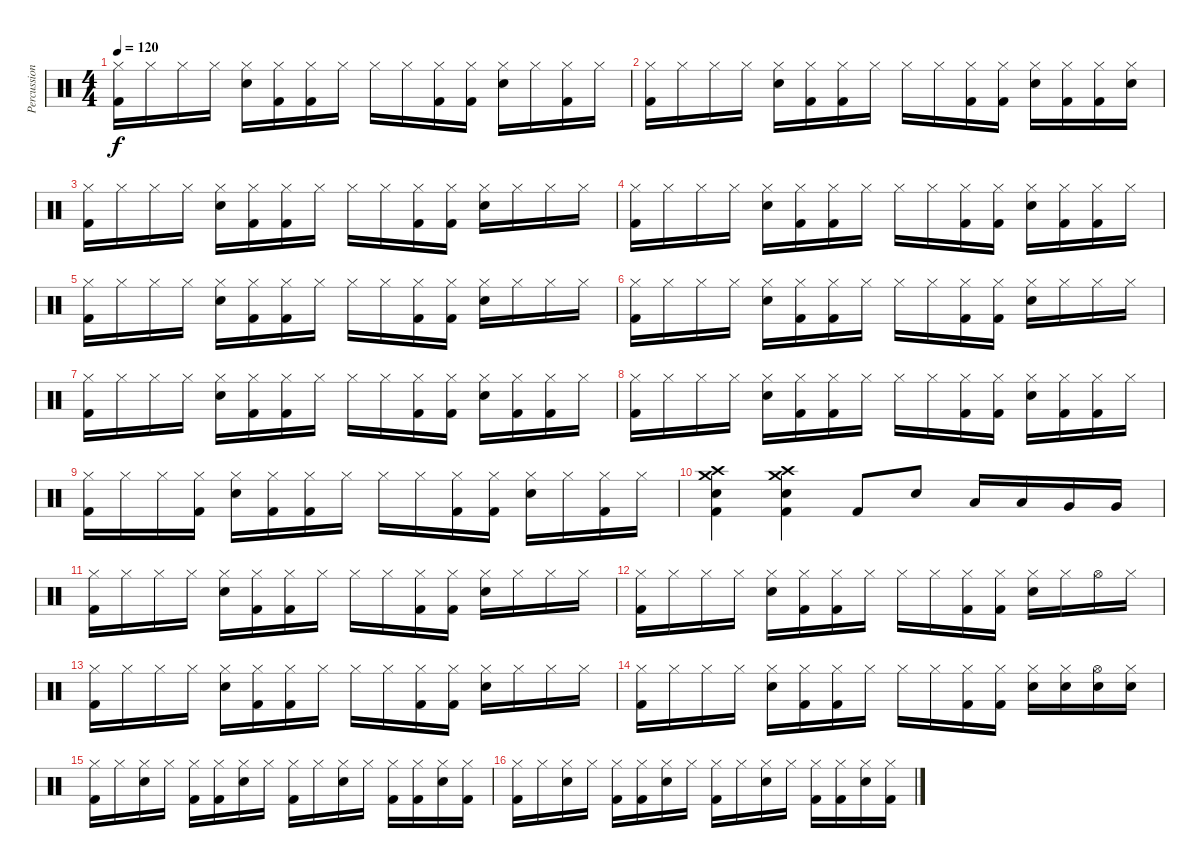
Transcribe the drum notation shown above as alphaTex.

\track ("Percussion" "Percussion") {instrument percussion}
\staff {score}
\articulation defaults
\ts (4 4)
\tempo 120
\clef neutral
\ks c
("Hi-Hat (closed)" "Kick (hit) 2").16{dy f} "Hi-Hat (closed)".16 "Hi-Hat (closed)".16 "Hi-Hat (closed)".16 ("Hi-Hat (closed)" "Snare (hit) 2").16 ("Hi-Hat (closed)" "Kick (hit) 2").16 ("Hi-Hat (closed)" "Kick (hit) 2").16 "Hi-Hat (closed)".16 "Hi-Hat (closed)".16 "Hi-Hat (closed)".16 ("Hi-Hat (closed)" "Kick (hit) 2").16 ("Hi-Hat (closed)" "Kick (hit) 2").16 ("Hi-Hat (closed)" "Snare (hit) 2").16 "Hi-Hat (closed)".16 ("Hi-Hat (closed)" "Kick (hit) 2").16 "Hi-Hat (closed)".16 |
("Hi-Hat (closed)" "Kick (hit) 2").16 "Hi-Hat (closed)".16 "Hi-Hat (closed)".16 "Hi-Hat (closed)".16 ("Hi-Hat (closed)" "Snare (hit) 2").16 ("Hi-Hat (closed)" "Kick (hit) 2").16 ("Hi-Hat (closed)" "Kick (hit) 2").16 "Hi-Hat (closed)".16 "Hi-Hat (closed)".16 "Hi-Hat (closed)".16 ("Hi-Hat (closed)" "Kick (hit) 2").16 ("Hi-Hat (closed)" "Kick (hit) 2").16 ("Hi-Hat (closed)" "Snare (hit) 2").16 ("Hi-Hat (closed)" "Kick (hit) 2").16 ("Hi-Hat (closed)" "Kick (hit) 2").16 ("Hi-Hat (closed)" "Snare (hit) 2").16 |
("Hi-Hat (closed)" "Kick (hit) 2").16 "Hi-Hat (closed)".16 "Hi-Hat (closed)".16 "Hi-Hat (closed)".16 ("Hi-Hat (closed)" "Snare (hit) 2").16 ("Hi-Hat (closed)" "Kick (hit) 2").16 ("Hi-Hat (closed)" "Kick (hit) 2").16 "Hi-Hat (closed)".16 "Hi-Hat (closed)".16 "Hi-Hat (closed)".16 ("Hi-Hat (closed)" "Kick (hit) 2").16 ("Hi-Hat (closed)" "Kick (hit) 2").16 ("Hi-Hat (closed)" "Snare (hit) 2").16 "Hi-Hat (closed)".16 "Hi-Hat (closed)".16 "Hi-Hat (closed)".16 |
("Hi-Hat (closed)" "Kick (hit) 2").16 "Hi-Hat (closed)".16 "Hi-Hat (closed)".16 "Hi-Hat (closed)".16 ("Hi-Hat (closed)" "Snare (hit) 2").16 ("Hi-Hat (closed)" "Kick (hit) 2").16 ("Hi-Hat (closed)" "Kick (hit) 2").16 "Hi-Hat (closed)".16 "Hi-Hat (closed)".16 "Hi-Hat (closed)".16 ("Hi-Hat (closed)" "Kick (hit) 2").16 ("Hi-Hat (closed)" "Kick (hit) 2").16 ("Hi-Hat (closed)" "Snare (hit) 2").16 ("Hi-Hat (closed)" "Kick (hit) 2").16 ("Hi-Hat (closed)" "Kick (hit) 2").16 "Hi-Hat (closed)".16 |
("Hi-Hat (closed)" "Kick (hit) 2").16 "Hi-Hat (closed)".16 "Hi-Hat (closed)".16 "Hi-Hat (closed)".16 ("Hi-Hat (closed)" "Snare (hit) 2").16 ("Hi-Hat (closed)" "Kick (hit) 2").16 ("Hi-Hat (closed)" "Kick (hit) 2").16 "Hi-Hat (closed)".16 "Hi-Hat (closed)".16 "Hi-Hat (closed)".16 ("Hi-Hat (closed)" "Kick (hit) 2").16 ("Hi-Hat (closed)" "Kick (hit) 2").16 ("Hi-Hat (closed)" "Snare (hit) 2").16 "Hi-Hat (closed)".16 "Hi-Hat (closed)".16 "Hi-Hat (closed)".16 |
("Hi-Hat (closed)" "Kick (hit) 2").16 "Hi-Hat (closed)".16 "Hi-Hat (closed)".16 "Hi-Hat (closed)".16 ("Hi-Hat (closed)" "Snare (hit) 2").16 ("Hi-Hat (closed)" "Kick (hit) 2").16 ("Hi-Hat (closed)" "Kick (hit) 2").16 "Hi-Hat (closed)".16 "Hi-Hat (closed)".16 "Hi-Hat (closed)".16 ("Hi-Hat (closed)" "Kick (hit) 2").16 ("Hi-Hat (closed)" "Kick (hit) 2").16 ("Hi-Hat (closed)" "Snare (hit) 2").16 "Hi-Hat (closed)".16 "Hi-Hat (closed)".16 "Hi-Hat (closed)".16 |
("Hi-Hat (closed)" "Kick (hit) 2").16 "Hi-Hat (closed)".16 "Hi-Hat (closed)".16 "Hi-Hat (closed)".16 ("Hi-Hat (closed)" "Snare (hit) 2").16 ("Hi-Hat (closed)" "Kick (hit) 2").16 ("Hi-Hat (closed)" "Kick (hit) 2").16 "Hi-Hat (closed)".16 "Hi-Hat (closed)".16 "Hi-Hat (closed)".16 ("Hi-Hat (closed)" "Kick (hit) 2").16 ("Hi-Hat (closed)" "Kick (hit) 2").16 ("Hi-Hat (closed)" "Snare (hit) 2").16 ("Hi-Hat (closed)" "Kick (hit) 2").16 ("Hi-Hat (closed)" "Kick (hit) 2").16 "Hi-Hat (closed)".16 |
("Hi-Hat (closed)" "Kick (hit) 2").16 "Hi-Hat (closed)".16 "Hi-Hat (closed)".16 "Hi-Hat (closed)".16 ("Hi-Hat (closed)" "Snare (hit) 2").16 ("Hi-Hat (closed)" "Kick (hit) 2").16 ("Hi-Hat (closed)" "Kick (hit) 2").16 "Hi-Hat (closed)".16 "Hi-Hat (closed)".16 "Hi-Hat (closed)".16 ("Hi-Hat (closed)" "Kick (hit) 2").16 ("Hi-Hat (closed)" "Kick (hit) 2").16 ("Hi-Hat (closed)" "Snare (hit) 2").16 ("Hi-Hat (closed)" "Kick (hit) 2").16 ("Hi-Hat (closed)" "Kick (hit) 2").16 "Hi-Hat (closed)".16 |
("Hi-Hat (closed)" "Kick (hit) 2").16 "Hi-Hat (closed)".16 "Hi-Hat (closed)".16 ("Hi-Hat (closed)" "Kick (hit) 2").16 ("Hi-Hat (closed)" "Snare (hit) 2").16 ("Hi-Hat (closed)" "Kick (hit) 2").16 ("Hi-Hat (closed)" "Kick (hit) 2").16 "Hi-Hat (closed)".16 "Hi-Hat (closed)".16 "Hi-Hat (closed)".16 ("Hi-Hat (closed)" "Kick (hit) 2").16 ("Hi-Hat (closed)" "Kick (hit) 2").16 ("Hi-Hat (closed)" "Snare (hit) 2").16 "Hi-Hat (closed)".16 ("Hi-Hat (closed)" "Kick (hit) 2").16 "Hi-Hat (closed)".16 |
("Crash medium (hit)" "Crash high (hit)" "Snare (hit) 2" "Kick (hit) 2").4 ("Crash medium (hit)" "Crash high (hit)" "Snare (hit) 2" "Kick (hit) 2").4 "Kick (hit) 2".8 "Snare (hit) 2".8 "Low Tom (hit)".16 "Low Tom (hit)".16 "Very Low Tom (hit)".16 "Very Low Tom (hit)".16 |
("Hi-Hat (closed)" "Kick (hit) 2").16 "Hi-Hat (closed)".16 "Hi-Hat (closed)".16 "Hi-Hat (closed)".16 ("Hi-Hat (closed)" "Snare (hit) 2").16 ("Hi-Hat (closed)" "Kick (hit) 2").16 ("Hi-Hat (closed)" "Kick (hit) 2").16 "Hi-Hat (closed)".16 "Hi-Hat (closed)".16 "Hi-Hat (closed)".16 ("Hi-Hat (closed)" "Kick (hit) 2").16 ("Hi-Hat (closed)" "Kick (hit) 2").16 ("Hi-Hat (closed)" "Snare (hit) 2").16 "Hi-Hat (closed)".16 "Hi-Hat (closed)".16 "Hi-Hat (closed)".16 |
("Hi-Hat (closed)" "Kick (hit) 2").16 "Hi-Hat (closed)".16 "Hi-Hat (closed)".16 "Hi-Hat (closed)".16 ("Hi-Hat (closed)" "Snare (hit) 2").16 ("Hi-Hat (closed)" "Kick (hit) 2").16 ("Hi-Hat (closed)" "Kick (hit) 2").16 "Hi-Hat (closed)".16 "Hi-Hat (closed)".16 "Hi-Hat (closed)".16 ("Hi-Hat (closed)" "Kick (hit) 2").16 ("Hi-Hat (closed)" "Kick (hit) 2").16 ("Hi-Hat (closed)" "Snare (hit) 2").16 "Hi-Hat (closed)".16 "Hi-Hat (open)".16 "Hi-Hat (closed)".16 |
("Hi-Hat (closed)" "Kick (hit) 2").16 "Hi-Hat (closed)".16 "Hi-Hat (closed)".16 "Hi-Hat (closed)".16 ("Hi-Hat (closed)" "Snare (hit) 2").16 ("Hi-Hat (closed)" "Kick (hit) 2").16 ("Hi-Hat (closed)" "Kick (hit) 2").16 "Hi-Hat (closed)".16 "Hi-Hat (closed)".16 "Hi-Hat (closed)".16 ("Hi-Hat (closed)" "Kick (hit) 2").16 ("Hi-Hat (closed)" "Kick (hit) 2").16 ("Hi-Hat (closed)" "Snare (hit) 2").16 "Hi-Hat (closed)".16 "Hi-Hat (closed)".16 "Hi-Hat (closed)".16 |
("Hi-Hat (closed)" "Kick (hit) 2").16 "Hi-Hat (closed)".16 "Hi-Hat (closed)".16 "Hi-Hat (closed)".16 ("Hi-Hat (closed)" "Snare (hit) 2").16 ("Hi-Hat (closed)" "Kick (hit) 2").16 ("Hi-Hat (closed)" "Kick (hit) 2").16 "Hi-Hat (closed)".16 "Hi-Hat (closed)".16 "Hi-Hat (closed)".16 ("Hi-Hat (closed)" "Kick (hit) 2").16 ("Hi-Hat (closed)" "Kick (hit) 2").16 ("Hi-Hat (closed)" "Snare (hit) 2").16 ("Hi-Hat (closed)" "Snare (hit) 2").16 ("Hi-Hat (open)" "Snare (hit) 2").16 ("Hi-Hat (closed)" "Snare (hit) 2").16 |
("Hi-Hat (closed)" "Kick (hit) 2").16 "Hi-Hat (closed)".16 ("Hi-Hat (closed)" "Snare (hit) 2").16 "Hi-Hat (closed)".16 ("Hi-Hat (closed)" "Kick (hit) 2").16 ("Hi-Hat (closed)" "Kick (hit) 2").16 ("Hi-Hat (closed)" "Snare (hit) 2").16 "Hi-Hat (closed)".16 ("Hi-Hat (closed)" "Kick (hit) 2").16 "Hi-Hat (closed)".16 ("Hi-Hat (closed)" "Snare (hit) 2").16 "Hi-Hat (closed)".16 ("Hi-Hat (closed)" "Kick (hit) 2").16 ("Hi-Hat (closed)" "Kick (hit) 2").16 ("Hi-Hat (closed)" "Snare (hit) 2").16 ("Hi-Hat (closed)" "Kick (hit) 2").16 |
("Hi-Hat (closed)" "Kick (hit) 2").16 "Hi-Hat (closed)".16 ("Hi-Hat (closed)" "Snare (hit) 2").16 "Hi-Hat (closed)".16 ("Hi-Hat (closed)" "Kick (hit) 2").16 ("Hi-Hat (closed)" "Kick (hit) 2").16 ("Hi-Hat (closed)" "Snare (hit) 2").16 "Hi-Hat (closed)".16 ("Hi-Hat (closed)" "Kick (hit) 2").16 "Hi-Hat (closed)".16 ("Hi-Hat (closed)" "Snare (hit) 2").16 "Hi-Hat (closed)".16 ("Hi-Hat (closed)" "Kick (hit) 2").16 ("Hi-Hat (closed)" "Kick (hit) 2").16 ("Hi-Hat (closed)" "Snare (hit) 2").16 ("Hi-Hat (closed)" "Kick (hit) 2").16
